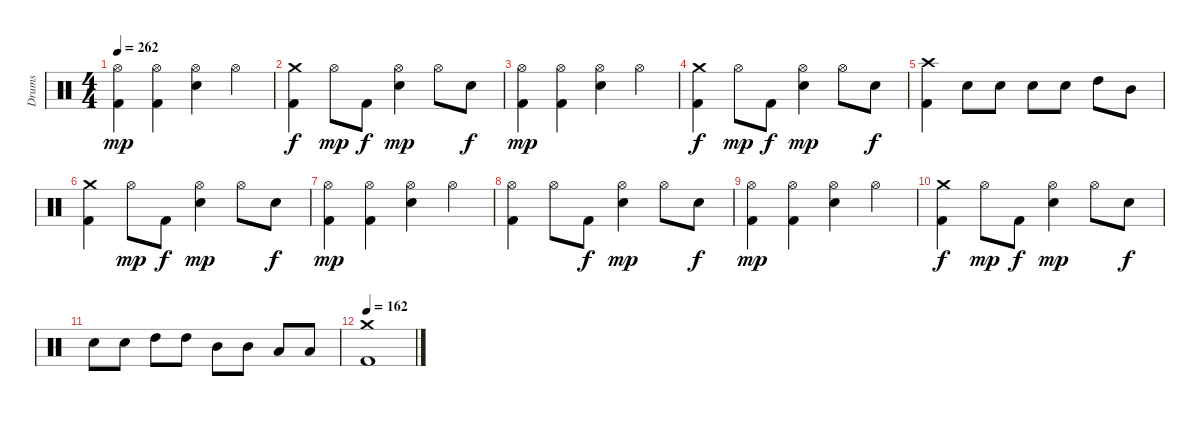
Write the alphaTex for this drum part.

\track ("Drums" "Drums") {instrument percussion}
\staff {score}
\articulation defaults
\ts (4 4)
\tempo 262
\clef neutral
\ks c
("Hi-Hat (open)" "Kick (hit) 2").4{dy mp} ("Hi-Hat (open)" "Kick (hit) 2").4 ("Hi-Hat (open)" "Snare (hit) 2").4 "Hi-Hat (open)".4 |
("Crash medium (hit)" "Kick (hit) 2").4{dy f} "Hi-Hat (open)".8{dy mp} "Kick (hit) 2".8{dy f} ("Hi-Hat (open)" "Snare (hit) 2").4{dy mp} "Hi-Hat (open)".8 "Snare (hit) 2".8{dy f} |
("Hi-Hat (open)" "Kick (hit) 2").4{dy mp} ("Hi-Hat (open)" "Kick (hit) 2").4 ("Hi-Hat (open)" "Snare (hit) 2").4 "Hi-Hat (open)".4 |
("Crash medium (hit)" "Kick (hit) 2").4{dy f} "Hi-Hat (open)".8{dy mp} "Kick (hit) 2".8{dy f} ("Hi-Hat (open)" "Snare (hit) 2").4{dy mp} "Hi-Hat (open)".8 "Snare (hit) 2".8{dy f} |
("Crash high (hit)" "Kick (hit) 2").4 "Snare (hit) 2".8 "Snare (hit) 2".8 "Snare (hit) 2".8 "Snare (hit) 2".8 "High Tom (hit)".8 "Mid Tom (hit)".8 |
("Crash medium (hit)" "Kick (hit) 2").4 "Hi-Hat (open)".8{dy mp} "Kick (hit) 2".8{dy f} ("Hi-Hat (open)" "Snare (hit) 2").4{dy mp} "Hi-Hat (open)".8 "Snare (hit) 2".8{dy f} |
("Hi-Hat (open)" "Kick (hit) 2").4{dy mp} ("Hi-Hat (open)" "Kick (hit) 2").4 ("Hi-Hat (open)" "Snare (hit) 2").4 "Hi-Hat (open)".4 |
("Hi-Hat (open)" "Kick (hit) 2").4 "Hi-Hat (open)".8 "Kick (hit) 2".8{dy f} ("Hi-Hat (open)" "Snare (hit) 2").4{dy mp} "Hi-Hat (open)".8 "Snare (hit) 2".8{dy f} |
("Hi-Hat (open)" "Kick (hit) 2").4{dy mp} ("Hi-Hat (open)" "Kick (hit) 2").4 ("Hi-Hat (open)" "Snare (hit) 2").4 "Hi-Hat (open)".4 |
("Crash medium (hit)" "Kick (hit) 2").4{dy f} "Hi-Hat (open)".8{dy mp} "Kick (hit) 2".8{dy f} ("Hi-Hat (open)" "Snare (hit) 2").4{dy mp} "Hi-Hat (open)".8 "Snare (hit) 2".8{dy f} |
"Snare (hit) 2".8 "Snare (hit) 2".8 "High Tom (hit)".8 "High Tom (hit)".8 "Mid Tom (hit)".8 "Mid Tom (hit)".8 "Low Tom (hit)".8 "Low Tom (hit)".8 |
\tempo 162
("Crash medium (hit)" "Kick (hit) 2").1
